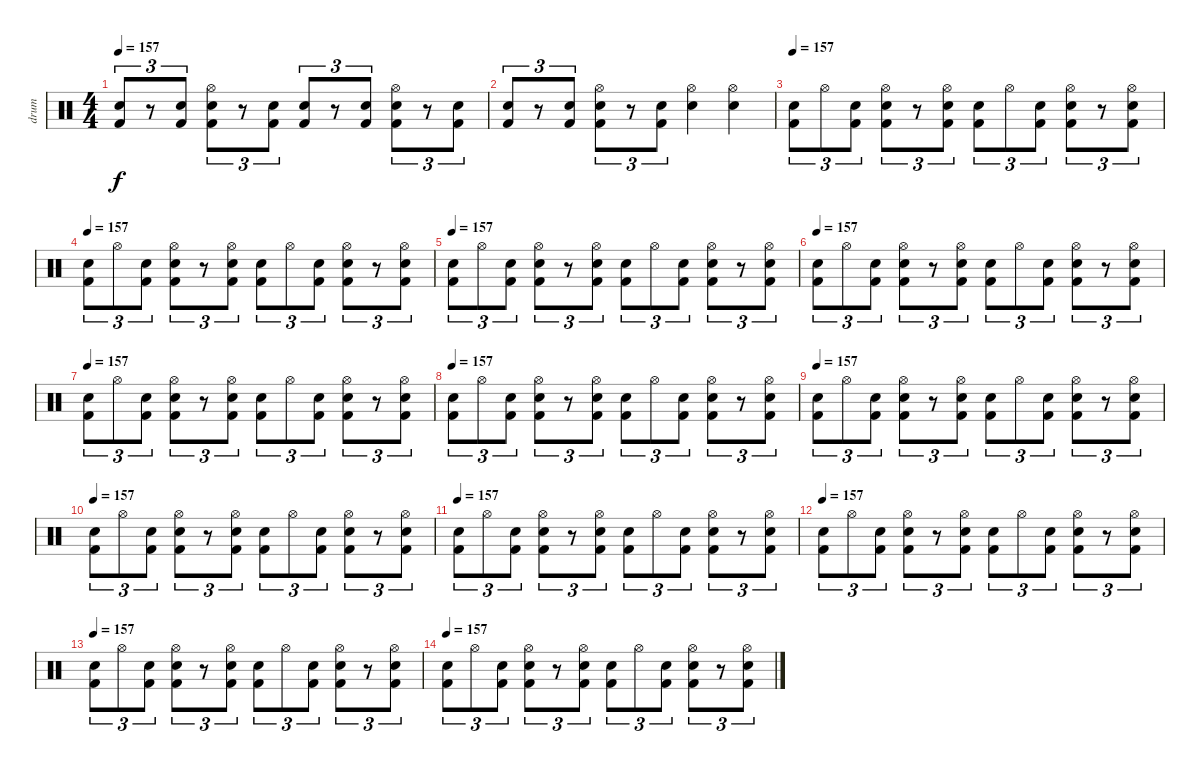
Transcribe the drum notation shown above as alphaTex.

\track ("drum" "drum") {instrument percussion}
\staff {score}
\articulation defaults
\ts (4 4)
\tempo 157
\clef neutral
\ks c
("Snare (hit) 2" "Kick (hit) 2").8{tu (3 2) dy f} r.8{tu (3 2)} ("Snare (hit) 2" "Kick (hit) 2").8{tu (3 2)} ("Hi-Hat (open)" "Snare (hit) 2" "Kick (hit) 2").8{tu (3 2)} r.8{tu (3 2)} ("Snare (hit) 2" "Kick (hit) 2").8{tu (3 2)} ("Snare (hit) 2" "Kick (hit) 2").8{tu (3 2)} r.8{tu (3 2)} ("Snare (hit) 2" "Kick (hit) 2").8{tu (3 2)} ("Hi-Hat (open)" "Snare (hit) 2" "Kick (hit) 2").8{tu (3 2)} r.8{tu (3 2)} ("Snare (hit) 2" "Kick (hit) 2").8{tu (3 2)} |
("Snare (hit) 2" "Kick (hit) 2").8{tu (3 2)} r.8{tu (3 2)} ("Snare (hit) 2" "Kick (hit) 2").8{tu (3 2)} ("Hi-Hat (open)" "Snare (hit) 2" "Kick (hit) 2").8{tu (3 2)} r.8{tu (3 2)} ("Snare (hit) 2" "Kick (hit) 2").8{tu (3 2)} ("Snare (hit) 2" "Hi-Hat (open)").4 ("Snare (hit) 2" "Hi-Hat (open)").4 |
\tempo 157
("Snare (hit) 2" "Kick (hit) 2").8{tu (3 2)} "Hi-Hat (open)".8{tu (3 2)} ("Snare (hit) 2" "Kick (hit) 2").8{tu (3 2)} ("Hi-Hat (open)" "Snare (hit) 2" "Kick (hit) 2").8{tu (3 2)} r.8{tu (3 2)} ("Hi-Hat (open)" "Snare (hit) 2" "Kick (hit) 2").8{tu (3 2)} ("Snare (hit) 2" "Kick (hit) 2").8{tu (3 2)} "Hi-Hat (open)".8{tu (3 2)} ("Snare (hit) 2" "Kick (hit) 2").8{tu (3 2)} ("Hi-Hat (open)" "Snare (hit) 2" "Kick (hit) 2").8{tu (3 2)} r.8{tu (3 2)} ("Hi-Hat (open)" "Snare (hit) 2" "Kick (hit) 2").8{tu (3 2)} |
\tempo 157
("Snare (hit) 2" "Kick (hit) 2").8{tu (3 2)} "Hi-Hat (open)".8{tu (3 2)} ("Snare (hit) 2" "Kick (hit) 2").8{tu (3 2)} ("Hi-Hat (open)" "Snare (hit) 2" "Kick (hit) 2").8{tu (3 2)} r.8{tu (3 2)} ("Hi-Hat (open)" "Snare (hit) 2" "Kick (hit) 2").8{tu (3 2)} ("Snare (hit) 2" "Kick (hit) 2").8{tu (3 2)} "Hi-Hat (open)".8{tu (3 2)} ("Snare (hit) 2" "Kick (hit) 2").8{tu (3 2)} ("Hi-Hat (open)" "Snare (hit) 2" "Kick (hit) 2").8{tu (3 2)} r.8{tu (3 2)} ("Hi-Hat (open)" "Snare (hit) 2" "Kick (hit) 2").8{tu (3 2)} |
\tempo 157
("Snare (hit) 2" "Kick (hit) 2").8{tu (3 2)} "Hi-Hat (open)".8{tu (3 2)} ("Snare (hit) 2" "Kick (hit) 2").8{tu (3 2)} ("Hi-Hat (open)" "Snare (hit) 2" "Kick (hit) 2").8{tu (3 2)} r.8{tu (3 2)} ("Hi-Hat (open)" "Snare (hit) 2" "Kick (hit) 2").8{tu (3 2)} ("Snare (hit) 2" "Kick (hit) 2").8{tu (3 2)} "Hi-Hat (open)".8{tu (3 2)} ("Snare (hit) 2" "Kick (hit) 2").8{tu (3 2)} ("Hi-Hat (open)" "Snare (hit) 2" "Kick (hit) 2").8{tu (3 2)} r.8{tu (3 2)} ("Hi-Hat (open)" "Snare (hit) 2" "Kick (hit) 2").8{tu (3 2)} |
\tempo 157
("Snare (hit) 2" "Kick (hit) 2").8{tu (3 2)} "Hi-Hat (open)".8{tu (3 2)} ("Snare (hit) 2" "Kick (hit) 2").8{tu (3 2)} ("Hi-Hat (open)" "Snare (hit) 2" "Kick (hit) 2").8{tu (3 2)} r.8{tu (3 2)} ("Hi-Hat (open)" "Snare (hit) 2" "Kick (hit) 2").8{tu (3 2)} ("Snare (hit) 2" "Kick (hit) 2").8{tu (3 2)} "Hi-Hat (open)".8{tu (3 2)} ("Snare (hit) 2" "Kick (hit) 2").8{tu (3 2)} ("Hi-Hat (open)" "Snare (hit) 2" "Kick (hit) 2").8{tu (3 2)} r.8{tu (3 2)} ("Hi-Hat (open)" "Snare (hit) 2" "Kick (hit) 2").8{tu (3 2)} |
\tempo 157
("Snare (hit) 2" "Kick (hit) 2").8{tu (3 2)} "Hi-Hat (open)".8{tu (3 2)} ("Snare (hit) 2" "Kick (hit) 2").8{tu (3 2)} ("Hi-Hat (open)" "Snare (hit) 2" "Kick (hit) 2").8{tu (3 2)} r.8{tu (3 2)} ("Hi-Hat (open)" "Snare (hit) 2" "Kick (hit) 2").8{tu (3 2)} ("Snare (hit) 2" "Kick (hit) 2").8{tu (3 2)} "Hi-Hat (open)".8{tu (3 2)} ("Snare (hit) 2" "Kick (hit) 2").8{tu (3 2)} ("Hi-Hat (open)" "Snare (hit) 2" "Kick (hit) 2").8{tu (3 2)} r.8{tu (3 2)} ("Hi-Hat (open)" "Snare (hit) 2" "Kick (hit) 2").8{tu (3 2)} |
\tempo 157
("Snare (hit) 2" "Kick (hit) 2").8{tu (3 2)} "Hi-Hat (open)".8{tu (3 2)} ("Snare (hit) 2" "Kick (hit) 2").8{tu (3 2)} ("Hi-Hat (open)" "Snare (hit) 2" "Kick (hit) 2").8{tu (3 2)} r.8{tu (3 2)} ("Hi-Hat (open)" "Snare (hit) 2" "Kick (hit) 2").8{tu (3 2)} ("Snare (hit) 2" "Kick (hit) 2").8{tu (3 2)} "Hi-Hat (open)".8{tu (3 2)} ("Snare (hit) 2" "Kick (hit) 2").8{tu (3 2)} ("Hi-Hat (open)" "Snare (hit) 2" "Kick (hit) 2").8{tu (3 2)} r.8{tu (3 2)} ("Hi-Hat (open)" "Snare (hit) 2" "Kick (hit) 2").8{tu (3 2)} |
\tempo 157
("Snare (hit) 2" "Kick (hit) 2").8{tu (3 2)} "Hi-Hat (open)".8{tu (3 2)} ("Snare (hit) 2" "Kick (hit) 2").8{tu (3 2)} ("Hi-Hat (open)" "Snare (hit) 2" "Kick (hit) 2").8{tu (3 2)} r.8{tu (3 2)} ("Hi-Hat (open)" "Snare (hit) 2" "Kick (hit) 2").8{tu (3 2)} ("Snare (hit) 2" "Kick (hit) 2").8{tu (3 2)} "Hi-Hat (open)".8{tu (3 2)} ("Snare (hit) 2" "Kick (hit) 2").8{tu (3 2)} ("Hi-Hat (open)" "Snare (hit) 2" "Kick (hit) 2").8{tu (3 2)} r.8{tu (3 2)} ("Hi-Hat (open)" "Snare (hit) 2" "Kick (hit) 2").8{tu (3 2)} |
\tempo 157
("Snare (hit) 2" "Kick (hit) 2").8{tu (3 2)} "Hi-Hat (open)".8{tu (3 2)} ("Snare (hit) 2" "Kick (hit) 2").8{tu (3 2)} ("Hi-Hat (open)" "Snare (hit) 2" "Kick (hit) 2").8{tu (3 2)} r.8{tu (3 2)} ("Hi-Hat (open)" "Snare (hit) 2" "Kick (hit) 2").8{tu (3 2)} ("Snare (hit) 2" "Kick (hit) 2").8{tu (3 2)} "Hi-Hat (open)".8{tu (3 2)} ("Snare (hit) 2" "Kick (hit) 2").8{tu (3 2)} ("Hi-Hat (open)" "Snare (hit) 2" "Kick (hit) 2").8{tu (3 2)} r.8{tu (3 2)} ("Hi-Hat (open)" "Snare (hit) 2" "Kick (hit) 2").8{tu (3 2)} |
\tempo 157
("Snare (hit) 2" "Kick (hit) 2").8{tu (3 2)} "Hi-Hat (open)".8{tu (3 2)} ("Snare (hit) 2" "Kick (hit) 2").8{tu (3 2)} ("Hi-Hat (open)" "Snare (hit) 2" "Kick (hit) 2").8{tu (3 2)} r.8{tu (3 2)} ("Hi-Hat (open)" "Snare (hit) 2" "Kick (hit) 2").8{tu (3 2)} ("Snare (hit) 2" "Kick (hit) 2").8{tu (3 2)} "Hi-Hat (open)".8{tu (3 2)} ("Snare (hit) 2" "Kick (hit) 2").8{tu (3 2)} ("Hi-Hat (open)" "Snare (hit) 2" "Kick (hit) 2").8{tu (3 2)} r.8{tu (3 2)} ("Hi-Hat (open)" "Snare (hit) 2" "Kick (hit) 2").8{tu (3 2)} |
\tempo 157
("Snare (hit) 2" "Kick (hit) 2").8{tu (3 2)} "Hi-Hat (open)".8{tu (3 2)} ("Snare (hit) 2" "Kick (hit) 2").8{tu (3 2)} ("Hi-Hat (open)" "Snare (hit) 2" "Kick (hit) 2").8{tu (3 2)} r.8{tu (3 2)} ("Hi-Hat (open)" "Snare (hit) 2" "Kick (hit) 2").8{tu (3 2)} ("Snare (hit) 2" "Kick (hit) 2").8{tu (3 2)} "Hi-Hat (open)".8{tu (3 2)} ("Snare (hit) 2" "Kick (hit) 2").8{tu (3 2)} ("Hi-Hat (open)" "Snare (hit) 2" "Kick (hit) 2").8{tu (3 2)} r.8{tu (3 2)} ("Hi-Hat (open)" "Snare (hit) 2" "Kick (hit) 2").8{tu (3 2)} |
\tempo 157
("Snare (hit) 2" "Kick (hit) 2").8{tu (3 2)} "Hi-Hat (open)".8{tu (3 2)} ("Snare (hit) 2" "Kick (hit) 2").8{tu (3 2)} ("Hi-Hat (open)" "Snare (hit) 2" "Kick (hit) 2").8{tu (3 2)} r.8{tu (3 2)} ("Hi-Hat (open)" "Snare (hit) 2" "Kick (hit) 2").8{tu (3 2)} ("Snare (hit) 2" "Kick (hit) 2").8{tu (3 2)} "Hi-Hat (open)".8{tu (3 2)} ("Snare (hit) 2" "Kick (hit) 2").8{tu (3 2)} ("Hi-Hat (open)" "Snare (hit) 2" "Kick (hit) 2").8{tu (3 2)} r.8{tu (3 2)} ("Hi-Hat (open)" "Snare (hit) 2" "Kick (hit) 2").8{tu (3 2)} |
\tempo 157
("Snare (hit) 2" "Kick (hit) 2").8{tu (3 2)} "Hi-Hat (open)".8{tu (3 2)} ("Snare (hit) 2" "Kick (hit) 2").8{tu (3 2)} ("Hi-Hat (open)" "Snare (hit) 2" "Kick (hit) 2").8{tu (3 2)} r.8{tu (3 2)} ("Hi-Hat (open)" "Snare (hit) 2" "Kick (hit) 2").8{tu (3 2)} ("Snare (hit) 2" "Kick (hit) 2").8{tu (3 2)} "Hi-Hat (open)".8{tu (3 2)} ("Snare (hit) 2" "Kick (hit) 2").8{tu (3 2)} ("Hi-Hat (open)" "Snare (hit) 2" "Kick (hit) 2").8{tu (3 2)} r.8{tu (3 2)} ("Hi-Hat (open)" "Snare (hit) 2" "Kick (hit) 2").8{tu (3 2)}
